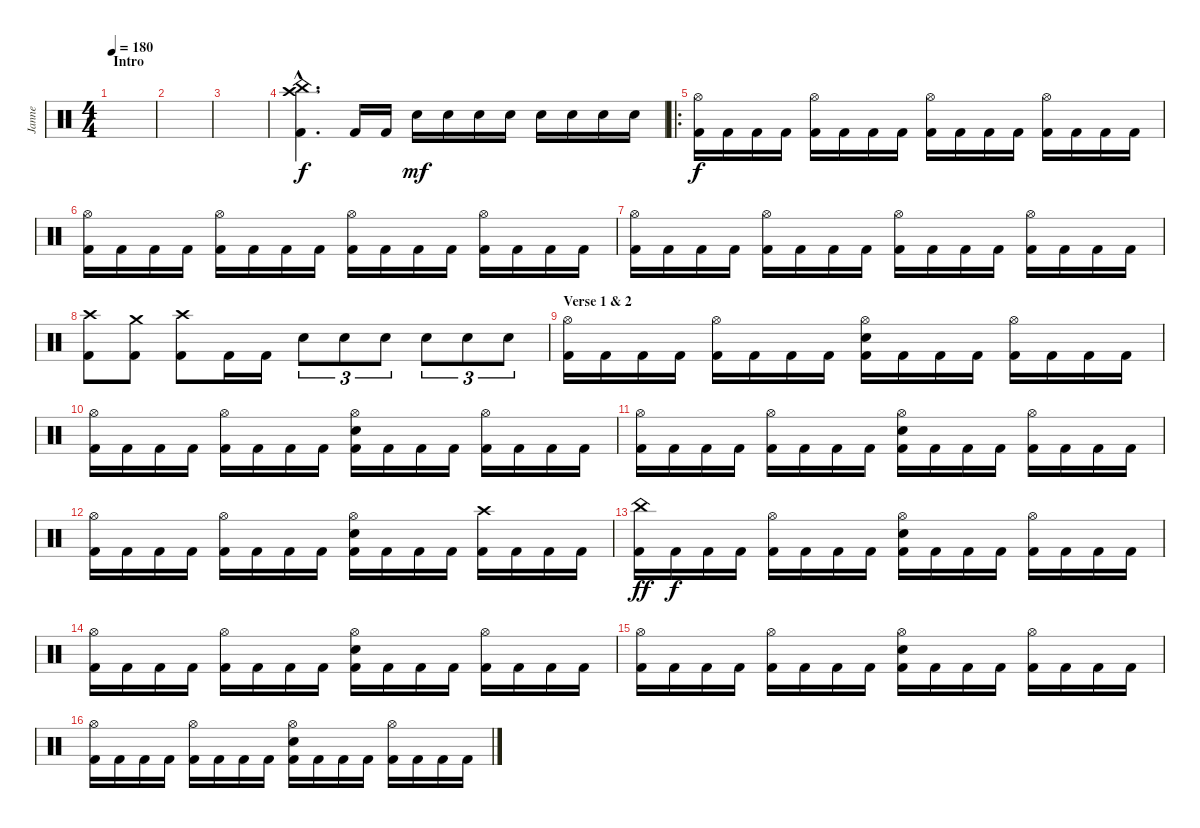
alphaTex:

\track ("Janne" "Janne") {instrument percussion}
\staff {score}
\articulation defaults
\ts (4 4)
\section ("" "Intro")
\tempo 180
\clef neutral
\ks c
|
|
|
("China (hit)"{hac} "Crash high (hit)"{hac} "Kick (hit) 2"{hac}).4{d} "Kick (hit) 2".16 "Kick (hit) 2".16 "Electric Snare (hit)".16{dy mf} "Electric Snare (hit)".16 "Electric Snare (hit)".16 "Electric Snare (hit)".16 "Electric Snare (hit)".16 "Electric Snare (hit)".16 "Electric Snare (hit)".16 "Electric Snare (hit)".16 |
\ro
("Hi-Hat (open)" "Kick (hit) 2").16{dy f} "Kick (hit) 2".16 "Kick (hit) 2".16 "Kick (hit) 2".16 ("Hi-Hat (open)" "Kick (hit) 2").16 "Kick (hit) 2".16 "Kick (hit) 2".16 "Kick (hit) 2".16 ("Hi-Hat (open)" "Kick (hit) 2").16 "Kick (hit) 2".16 "Kick (hit) 2".16 "Kick (hit) 2".16 ("Hi-Hat (open)" "Kick (hit) 2").16 "Kick (hit) 2".16 "Kick (hit) 2".16 "Kick (hit) 2".16 |
("Hi-Hat (open)" "Kick (hit) 2").16 "Kick (hit) 2".16 "Kick (hit) 2".16 "Kick (hit) 2".16 ("Hi-Hat (open)" "Kick (hit) 2").16 "Kick (hit) 2".16 "Kick (hit) 2".16 "Kick (hit) 2".16 ("Hi-Hat (open)" "Kick (hit) 2").16 "Kick (hit) 2".16 "Kick (hit) 2".16 "Kick (hit) 2".16 ("Hi-Hat (open)" "Kick (hit) 2").16 "Kick (hit) 2".16 "Kick (hit) 2".16 "Kick (hit) 2".16 |
("Hi-Hat (open)" "Kick (hit) 2").16 "Kick (hit) 2".16 "Kick (hit) 2".16 "Kick (hit) 2".16 ("Hi-Hat (open)" "Kick (hit) 2").16 "Kick (hit) 2".16 "Kick (hit) 2".16 "Kick (hit) 2".16 ("Hi-Hat (open)" "Kick (hit) 2").16 "Kick (hit) 2".16 "Kick (hit) 2".16 "Kick (hit) 2".16 ("Hi-Hat (open)" "Kick (hit) 2").16 "Kick (hit) 2".16 "Kick (hit) 2".16 "Kick (hit) 2".16 |
("Crash high (hit)" "Kick (hit) 2").8 ("Crash medium (hit)" "Kick (hit) 2").8 ("Crash high (hit)" "Kick (hit) 2").8 "Kick (hit) 2".16 "Kick (hit) 2".16 "Electric Snare (hit)".8{tu (3 2)} "Electric Snare (hit)".8{tu (3 2)} "Electric Snare (hit)".8{tu (3 2)} "Electric Snare (hit)".8{tu (3 2)} "Electric Snare (hit)".8{tu (3 2)} "Electric Snare (hit)".8{tu (3 2)} |
\section ("" "Verse 1 & 2")
("Hi-Hat (open)" "Kick (hit) 2").16 "Kick (hit) 2".16 "Kick (hit) 2".16 "Kick (hit) 2".16 ("Hi-Hat (open)" "Kick (hit) 2").16 "Kick (hit) 2".16 "Kick (hit) 2".16 "Kick (hit) 2".16 ("Hi-Hat (open)" "Electric Snare (hit)" "Kick (hit) 2").16 "Kick (hit) 2".16 "Kick (hit) 2".16 "Kick (hit) 2".16 ("Hi-Hat (open)" "Kick (hit) 2").16 "Kick (hit) 2".16 "Kick (hit) 2".16 "Kick (hit) 2".16 |
("Hi-Hat (open)" "Kick (hit) 2").16 "Kick (hit) 2".16 "Kick (hit) 2".16 "Kick (hit) 2".16 ("Hi-Hat (open)" "Kick (hit) 2").16 "Kick (hit) 2".16 "Kick (hit) 2".16 "Kick (hit) 2".16 ("Hi-Hat (open)" "Electric Snare (hit)" "Kick (hit) 2").16 "Kick (hit) 2".16 "Kick (hit) 2".16 "Kick (hit) 2".16 ("Hi-Hat (open)" "Kick (hit) 2").16 "Kick (hit) 2".16 "Kick (hit) 2".16 "Kick (hit) 2".16 |
("Hi-Hat (open)" "Kick (hit) 2").16 "Kick (hit) 2".16 "Kick (hit) 2".16 "Kick (hit) 2".16 ("Hi-Hat (open)" "Kick (hit) 2").16 "Kick (hit) 2".16 "Kick (hit) 2".16 "Kick (hit) 2".16 ("Hi-Hat (open)" "Electric Snare (hit)" "Kick (hit) 2").16 "Kick (hit) 2".16 "Kick (hit) 2".16 "Kick (hit) 2".16 ("Hi-Hat (open)" "Kick (hit) 2").16 "Kick (hit) 2".16 "Kick (hit) 2".16 "Kick (hit) 2".16 |
("Hi-Hat (open)" "Kick (hit) 2").16 "Kick (hit) 2".16 "Kick (hit) 2".16 "Kick (hit) 2".16 ("Hi-Hat (open)" "Kick (hit) 2").16 "Kick (hit) 2".16 "Kick (hit) 2".16 "Kick (hit) 2".16 ("Hi-Hat (open)" "Electric Snare (hit)" "Kick (hit) 2").16 "Kick (hit) 2".16 "Kick (hit) 2".16 "Kick (hit) 2".16 ("Crash high (hit)" "Kick (hit) 2").16 "Kick (hit) 2".16 "Kick (hit) 2".16 "Kick (hit) 2".16 |
("China (hit)" "Kick (hit) 2").16{dy ff} "Kick (hit) 2".16{dy f} "Kick (hit) 2".16 "Kick (hit) 2".16 ("Hi-Hat (open)" "Kick (hit) 2").16 "Kick (hit) 2".16 "Kick (hit) 2".16 "Kick (hit) 2".16 ("Hi-Hat (open)" "Electric Snare (hit)" "Kick (hit) 2").16 "Kick (hit) 2".16 "Kick (hit) 2".16 "Kick (hit) 2".16 ("Hi-Hat (open)" "Kick (hit) 2").16 "Kick (hit) 2".16 "Kick (hit) 2".16 "Kick (hit) 2".16 |
("Hi-Hat (open)" "Kick (hit) 2").16 "Kick (hit) 2".16 "Kick (hit) 2".16 "Kick (hit) 2".16 ("Hi-Hat (open)" "Kick (hit) 2").16 "Kick (hit) 2".16 "Kick (hit) 2".16 "Kick (hit) 2".16 ("Hi-Hat (open)" "Electric Snare (hit)" "Kick (hit) 2").16 "Kick (hit) 2".16 "Kick (hit) 2".16 "Kick (hit) 2".16 ("Hi-Hat (open)" "Kick (hit) 2").16 "Kick (hit) 2".16 "Kick (hit) 2".16 "Kick (hit) 2".16 |
("Hi-Hat (open)" "Kick (hit) 2").16 "Kick (hit) 2".16 "Kick (hit) 2".16 "Kick (hit) 2".16 ("Hi-Hat (open)" "Kick (hit) 2").16 "Kick (hit) 2".16 "Kick (hit) 2".16 "Kick (hit) 2".16 ("Hi-Hat (open)" "Electric Snare (hit)" "Kick (hit) 2").16 "Kick (hit) 2".16 "Kick (hit) 2".16 "Kick (hit) 2".16 ("Hi-Hat (open)" "Kick (hit) 2").16 "Kick (hit) 2".16 "Kick (hit) 2".16 "Kick (hit) 2".16 |
("Hi-Hat (open)" "Kick (hit) 2").16 "Kick (hit) 2".16 "Kick (hit) 2".16 "Kick (hit) 2".16 ("Hi-Hat (open)" "Kick (hit) 2").16 "Kick (hit) 2".16 "Kick (hit) 2".16 "Kick (hit) 2".16 ("Hi-Hat (open)" "Electric Snare (hit)" "Kick (hit) 2").16 "Kick (hit) 2".16 "Kick (hit) 2".16 "Kick (hit) 2".16 ("Hi-Hat (open)" "Kick (hit) 2").16 "Kick (hit) 2".16 "Kick (hit) 2".16 "Kick (hit) 2".16
